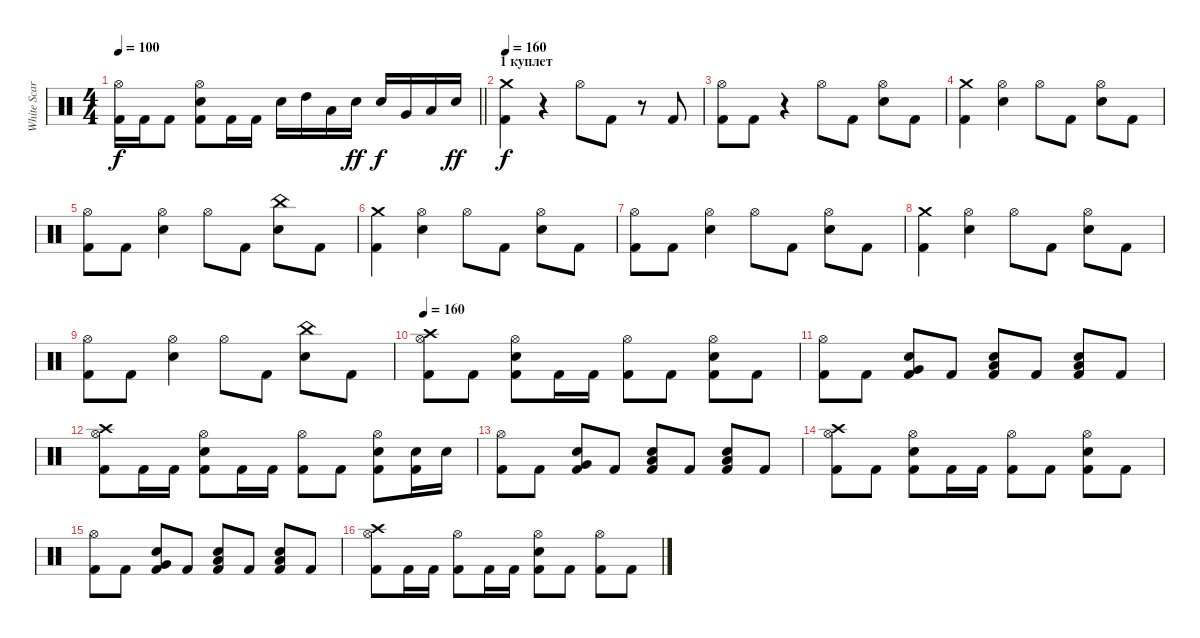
\track ("White Scar" "White Scar") {instrument percussion}
\staff {score}
\articulation defaults
\ts (4 4)
\tempo 100
\clef neutral
\barLineRight lightlight
\ks c
("Hi-Hat (open)" "Kick (hit) 2").16{dy f} "Kick (hit) 2".16 "Kick (hit) 2".8 ("Hi-Hat (open)" "Snare (hit) 2" "Kick (hit) 2").8 "Kick (hit) 2".16 "Kick (hit) 2".16 "Snare (hit) 2".16 "High Tom (hit)".16 "Low Tom (hit)".16 "Snare (hit) 2".16{dy ff} "Snare (hit) 2".16{dy f} "Very Low Tom (hit)".16 "Low Floor Tom (hit)".16 "Snare (hit) 2".16{dy ff} |
\section ("" "1 куплет")
\tempo 160
("Crash medium (hit)" "Kick (hit) 2").4{dy f} r.4 "Hi-Hat (open)".8 "Kick (hit) 2".8 r.8 "Kick (hit) 2".8 |
("Hi-Hat (open)" "Kick (hit) 2").8 "Kick (hit) 2".8 r.4 "Hi-Hat (open)".8 "Kick (hit) 2".8 ("Hi-Hat (open)" "Snare (hit) 2").8 "Kick (hit) 2".8 |
("Crash medium (hit)" "Kick (hit) 2").4 ("Hi-Hat (open)" "Snare (hit) 2").4 "Hi-Hat (open)".8 "Kick (hit) 2".8 ("Hi-Hat (open)" "Snare (hit) 2").8 "Kick (hit) 2".8 |
("Hi-Hat (open)" "Kick (hit) 2").8 "Kick (hit) 2".8 ("Hi-Hat (open)" "Snare (hit) 2").4 "Hi-Hat (open)".8 "Kick (hit) 2".8 ("China (hit)" "Snare (hit) 2").8 "Kick (hit) 2".8 |
("Crash medium (hit)" "Kick (hit) 2").4 ("Hi-Hat (open)" "Snare (hit) 2").4 "Hi-Hat (open)".8 "Kick (hit) 2".8 ("Hi-Hat (open)" "Snare (hit) 2").8 "Kick (hit) 2".8 |
("Hi-Hat (open)" "Kick (hit) 2").8 "Kick (hit) 2".8 ("Hi-Hat (open)" "Snare (hit) 2").4 "Hi-Hat (open)".8 "Kick (hit) 2".8 ("Hi-Hat (open)" "Snare (hit) 2").8 "Kick (hit) 2".8 |
("Crash medium (hit)" "Kick (hit) 2").4 ("Hi-Hat (open)" "Snare (hit) 2").4 "Hi-Hat (open)".8 "Kick (hit) 2".8 ("Hi-Hat (open)" "Snare (hit) 2").8 "Kick (hit) 2".8 |
("Hi-Hat (open)" "Kick (hit) 2").8 "Kick (hit) 2".8 ("Hi-Hat (open)" "Snare (hit) 2").4 "Hi-Hat (open)".8 "Kick (hit) 2".8 ("China (hit)" "Snare (hit) 2").8 "Kick (hit) 2".8 |
\tempo 160
("Crash high (hit)" "Hi-Hat (open)" "Kick (hit) 2").8 "Kick (hit) 2".8 ("Snare (hit) 2" "Hi-Hat (open)" "Kick (hit) 2").8 "Kick (hit) 2".16 "Kick (hit) 2".16 ("Hi-Hat (open)" "Kick (hit) 2").8 "Kick (hit) 2".8 ("Snare (hit) 2" "Hi-Hat (open)" "Kick (hit) 2").8 "Kick (hit) 2".8 |
("Hi-Hat (open)" "Kick (hit) 2").8 "Kick (hit) 2".8 ("Snare (hit) 2" "Very Low Tom (hit)" "Kick (hit) 2").8 "Kick (hit) 2".8 ("Snare (hit) 2" "Low Floor Tom (hit)" "Kick (hit) 2").8 "Kick (hit) 2".8 ("Snare (hit) 2" "Low Tom (hit)" "Kick (hit) 2").8 "Kick (hit) 2".8 |
("Crash high (hit)" "Hi-Hat (open)" "Kick (hit) 2").8 "Kick (hit) 2".16 "Kick (hit) 2".16 ("Snare (hit) 2" "Hi-Hat (open)" "Kick (hit) 2").8 "Kick (hit) 2".16 "Kick (hit) 2".16 ("Hi-Hat (open)" "Kick (hit) 2").8 "Kick (hit) 2".8 ("Snare (hit) 2" "Hi-Hat (open)" "Kick (hit) 2").8 ("Snare (hit) 2" "Kick (hit) 2").16 "Snare (hit) 2".16 |
("Hi-Hat (open)" "Kick (hit) 2").8 "Kick (hit) 2".8 ("Snare (hit) 2" "Very Low Tom (hit)" "Kick (hit) 2").8 "Kick (hit) 2".8 ("Snare (hit) 2" "Low Floor Tom (hit)" "Kick (hit) 2").8 "Kick (hit) 2".8 ("Snare (hit) 2" "Low Tom (hit)" "Kick (hit) 2").8 "Kick (hit) 2".8 |
("Crash high (hit)" "Hi-Hat (open)" "Kick (hit) 2").8 "Kick (hit) 2".8 ("Snare (hit) 2" "Hi-Hat (open)" "Kick (hit) 2").8 "Kick (hit) 2".16 "Kick (hit) 2".16 ("Hi-Hat (open)" "Kick (hit) 2").8 "Kick (hit) 2".8 ("Snare (hit) 2" "Hi-Hat (open)" "Kick (hit) 2").8 "Kick (hit) 2".8 |
("Hi-Hat (open)" "Kick (hit) 2").8 "Kick (hit) 2".8 ("Snare (hit) 2" "Very Low Tom (hit)" "Kick (hit) 2").8 "Kick (hit) 2".8 ("Snare (hit) 2" "Low Floor Tom (hit)" "Kick (hit) 2").8 "Kick (hit) 2".8 ("Snare (hit) 2" "Low Tom (hit)" "Kick (hit) 2").8 "Kick (hit) 2".8 |
("Crash high (hit)" "Hi-Hat (open)" "Kick (hit) 2").8 "Kick (hit) 2".16 "Kick (hit) 2".16 ("Hi-Hat (open)" "Kick (hit) 2").8 "Kick (hit) 2".16 "Kick (hit) 2".16 ("Snare (hit) 2" "Hi-Hat (open)" "Kick (hit) 2").8 "Kick (hit) 2".8 ("Hi-Hat (open)" "Kick (hit) 2").8 "Kick (hit) 2".8
